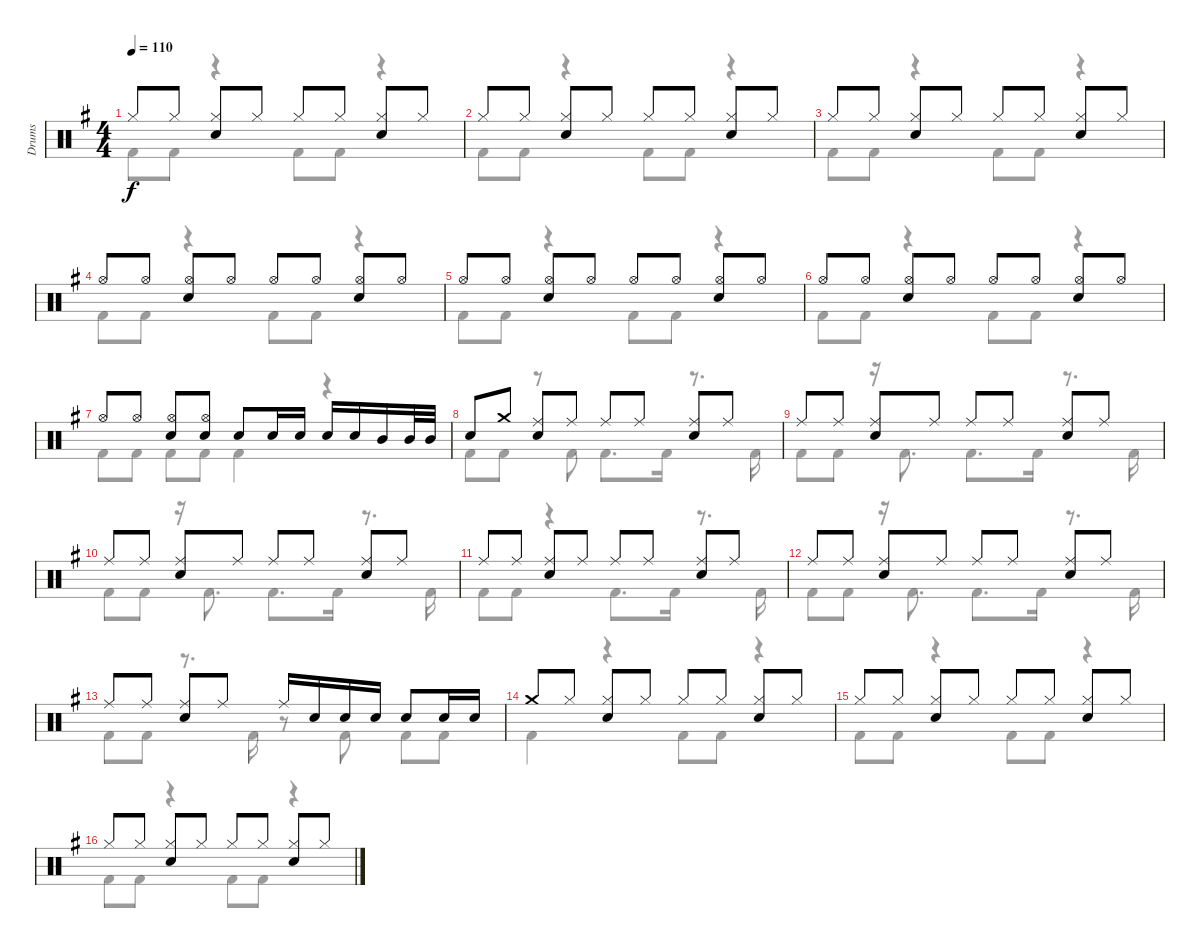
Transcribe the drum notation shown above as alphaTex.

\track ("Drums" "Drums") {instrument percussion}
\staff {score}
\articulation defaults
\voice
\ts (4 4)
\tempo 110
\clef neutral
\ks g "Hi-Hat (closed)".8{dy f} "Hi-Hat (closed)".8
("Hi-Hat (closed)" "Snare (hit) 2").8 "Hi-Hat (closed)".8 "Hi-Hat (closed)".8 "Hi-Hat (closed)".8 ("Hi-Hat (closed)" "Snare (hit) 2").8 "Hi-Hat (closed)".8 |
"Hi-Hat (closed)".8 "Hi-Hat (closed)".8 ("Hi-Hat (closed)" "Snare (hit) 2").8 "Hi-Hat (closed)".8 "Hi-Hat (closed)".8 "Hi-Hat (closed)".8 ("Hi-Hat (closed)" "Snare (hit) 2").8 "Hi-Hat (closed)".8 |
"Hi-Hat (closed)".8 "Hi-Hat (closed)".8 ("Hi-Hat (closed)" "Snare (hit) 2").8 "Hi-Hat (closed)".8 "Hi-Hat (closed)".8 "Hi-Hat (closed)".8 ("Hi-Hat (closed)" "Snare (hit) 2").8 "Hi-Hat (closed)".8 |
"Hi-Hat (open)".8 "Hi-Hat (open)".8 ("Hi-Hat (open)" "Snare (hit) 2").8 "Hi-Hat (open)".8 "Hi-Hat (open)".8 "Hi-Hat (open)".8 ("Hi-Hat (open)" "Snare (hit) 2").8 "Hi-Hat (open)".8 |
"Hi-Hat (open)".8 "Hi-Hat (open)".8 ("Hi-Hat (open)" "Snare (hit) 2").8 "Hi-Hat (open)".8 "Hi-Hat (open)".8 "Hi-Hat (open)".8 ("Hi-Hat (open)" "Snare (hit) 2").8 "Hi-Hat (open)".8 |
"Hi-Hat (open)".8 "Hi-Hat (open)".8 ("Hi-Hat (open)" "Snare (hit) 2").8 "Hi-Hat (open)".8 "Hi-Hat (open)".8 "Hi-Hat (open)".8 ("Hi-Hat (open)" "Snare (hit) 2").8 "Hi-Hat (open)".8 |
"Hi-Hat (open)".8 "Hi-Hat (open)".8 ("Hi-Hat (open)" "Snare (hit) 2").8 ("Hi-Hat (open)" "Snare (hit) 2").8 "Snare (hit) 2".8 "Snare (hit) 2".16 "Snare (hit) 2".16 "Snare (hit) 2".16 "Snare (hit) 2".16 "Mid Tom (hit)".16 "Mid Tom (hit)".32 "Mid Tom (hit)".32 |
"Snare (hit) 2".8 "Crash medium (hit)".8 ("Ride (middle)" "Snare (hit) 2").8 "Ride (middle)".8 "Ride (middle)".8 "Ride (middle)".8 ("Ride (middle)" "Snare (hit) 2").8 "Ride (middle)".8 |
"Ride (middle)".8 "Ride (middle)".8 ("Ride (middle)" "Snare (hit) 2").8 "Ride (middle)".8 "Ride (middle)".8 "Ride (middle)".8 ("Ride (middle)" "Snare (hit) 2").8 "Ride (middle)".8 |
"Ride (middle)".8 "Ride (middle)".8 ("Ride (middle)" "Snare (hit) 2").8 "Ride (middle)".8 "Ride (middle)".8 "Ride (middle)".8 ("Ride (middle)" "Snare (hit) 2").8 "Ride (middle)".8 |
"Ride (middle)".8 "Ride (middle)".8 ("Ride (middle)" "Snare (hit) 2").8 "Ride (middle)".8 "Ride (middle)".8 "Ride (middle)".8 ("Ride (middle)" "Snare (hit) 2").8 "Ride (middle)".8 |
"Ride (middle)".8 "Ride (middle)".8 ("Ride (middle)" "Snare (hit) 2").8 "Ride (middle)".8 "Ride (middle)".8 "Ride (middle)".8 ("Ride (middle)" "Snare (hit) 2").8 "Ride (middle)".8 |
"Ride (middle)".8 "Ride (middle)".8 ("Ride (middle)" "Snare (hit) 2").8 "Ride (middle)".8 "Ride (middle)".16 "Snare (hit) 2".16 "Snare (hit) 2".16 "Snare (hit) 2".16 "Snare (hit) 2".8 "Snare (hit) 2".16 "Snare (hit) 2".16 |
"Crash medium (hit)".8 "Hi-Hat (closed)".8 ("Hi-Hat (closed)" "Snare (hit) 2").8 "Hi-Hat (closed)".8 "Hi-Hat (closed)".8 "Hi-Hat (closed)".8 ("Hi-Hat (closed)" "Snare (hit) 2").8 "Hi-Hat (closed)".8 |
"Hi-Hat (closed)".8 "Hi-Hat (closed)".8 ("Hi-Hat (closed)" "Snare (hit) 2").8 "Hi-Hat (closed)".8 "Hi-Hat (closed)".8 "Hi-Hat (closed)".8 ("Hi-Hat (closed)" "Snare (hit) 2").8 "Hi-Hat (closed)".8 |
"Hi-Hat (closed)".8 "Hi-Hat (closed)".8 ("Hi-Hat (closed)" "Snare (hit) 2").8 "Hi-Hat (closed)".8 "Hi-Hat (closed)".8 "Hi-Hat (closed)".8 ("Hi-Hat (closed)" "Snare (hit) 2").8 "Hi-Hat (closed)".8
\voice
\clef neutral
\ottava regular
\simile none
\ks g "Kick (hit) 2".8{dy f} "Kick (hit) 2".8
r.4 "Kick (hit) 2".8 "Kick (hit) 2".8 r.4 |
"Kick (hit) 2".8 "Kick (hit) 2".8 r.4 "Kick (hit) 2".8 "Kick (hit) 2".8 r.4 |
"Kick (hit) 2".8 "Kick (hit) 2".8 r.4 "Kick (hit) 2".8 "Kick (hit) 2".8 r.4 |
"Kick (hit) 2".8 "Kick (hit) 2".8 r.4 "Kick (hit) 2".8 "Kick (hit) 2".8 r.4 |
"Kick (hit) 2".8 "Kick (hit) 2".8 r.4 "Kick (hit) 2".8 "Kick (hit) 2".8 r.4 |
"Kick (hit) 2".8 "Kick (hit) 2".8 r.4 "Kick (hit) 2".8 "Kick (hit) 2".8 r.4 |
"Kick (hit) 2".8 "Kick (hit) 2".8 "Kick (hit) 2".8 "Kick (hit) 2".8 "Kick (hit) 2".4 r.4 |
"Kick (hit) 2".8 "Kick (hit) 2".8 r.8 "Kick (hit) 2".8 "Kick (hit) 2".8{d} "Kick (hit) 2".16 r.8{d} "Kick (hit) 2".16 |
"Kick (hit) 2".8 "Kick (hit) 2".8 r.16 "Kick (hit) 2".8{d} "Kick (hit) 2".8{d} "Kick (hit) 2".16 r.8{d} "Kick (hit) 2".16 |
"Kick (hit) 2".8 "Kick (hit) 2".8 r.16 "Kick (hit) 2".8{d} "Kick (hit) 2".8{d} "Kick (hit) 2".16 r.8{d} "Kick (hit) 2".16 |
"Kick (hit) 2".8 "Kick (hit) 2".8 r.4 "Kick (hit) 2".8{d} "Kick (hit) 2".16 r.8{d} "Kick (hit) 2".16 |
"Kick (hit) 2".8 "Kick (hit) 2".8 r.16 "Kick (hit) 2".8{d} "Kick (hit) 2".8{d} "Kick (hit) 2".16 r.8{d} "Kick (hit) 2".16 |
"Kick (hit) 2".8 "Kick (hit) 2".8 r.8{d} "Kick (hit) 2".16 r.8 "Kick (hit) 2".8 "Kick (hit) 2".8 "Kick (hit) 2".8 |
"Kick (hit) 2".4 r.4 "Kick (hit) 2".8 "Kick (hit) 2".8 r.4 |
"Kick (hit) 2".8 "Kick (hit) 2".8 r.4 "Kick (hit) 2".8 "Kick (hit) 2".8 r.4 |
"Kick (hit) 2".8 "Kick (hit) 2".8 r.4 "Kick (hit) 2".8 "Kick (hit) 2".8 r.4
